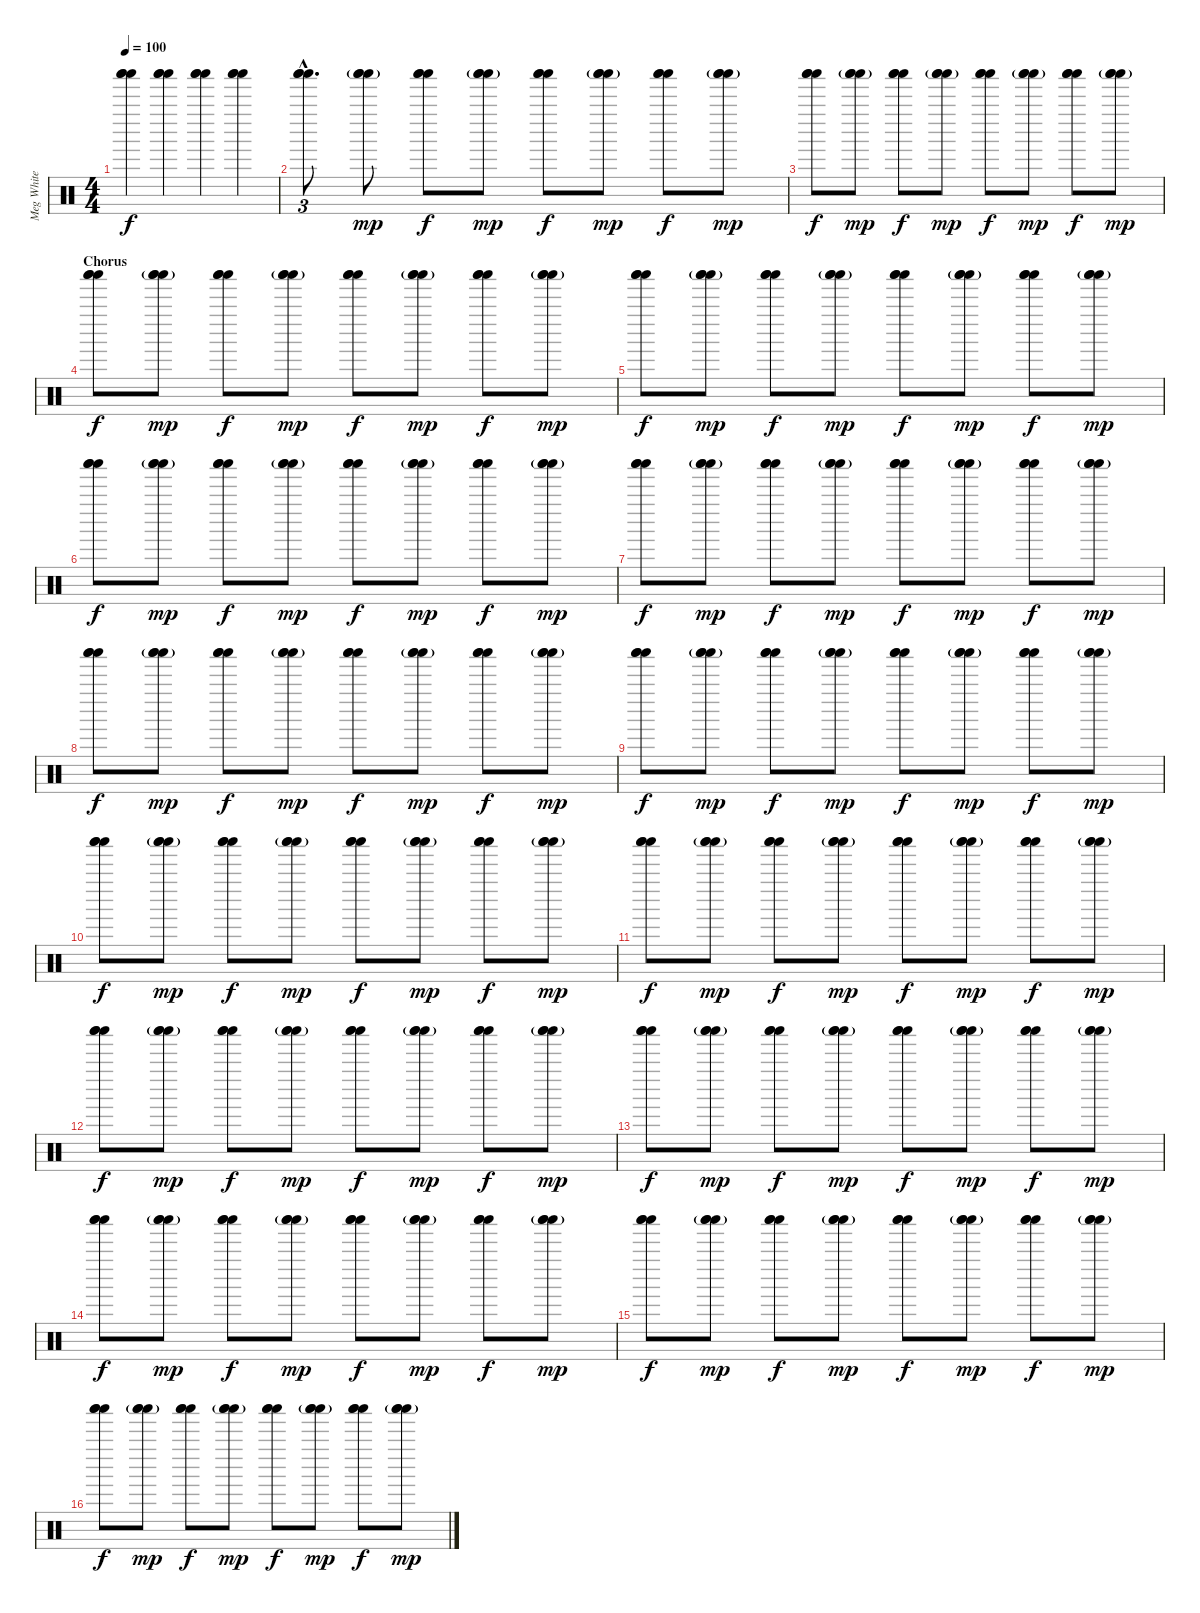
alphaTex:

\track ("Meg White" "Meg White") {instrument percussion}
\staff {score}
\articulation defaults
\ts (4 4)
\tempo 100
\clef neutral
\ks c
("Shaker (hit)" "Shaker (hit)" "Shaker (hit)").4{dy f} ("Shaker (hit)" "Shaker (hit)" "Shaker (hit)").4 ("Shaker (hit)" "Shaker (hit)" "Shaker (hit)").4 ("Shaker (hit)" "Shaker (hit)" "Shaker (hit)").4 |
("Shaker (hit)"{hac} "Shaker (hit)"{hac} "Shaker (hit)"{hac}).8{d tu (3 2)} ("Shaker (hit)"{g} "Shaker (hit)"{g} "Shaker (hit)"{g}).8{dy mp} ("Shaker (hit)" "Shaker (hit)" "Shaker (hit)").8{dy f} ("Shaker (hit)"{g} "Shaker (hit)"{g} "Shaker (hit)"{g}).8{dy mp} ("Shaker (hit)" "Shaker (hit)" "Shaker (hit)").8{dy f} ("Shaker (hit)"{g} "Shaker (hit)"{g} "Shaker (hit)"{g}).8{dy mp} ("Shaker (hit)" "Shaker (hit)" "Shaker (hit)").8{dy f} ("Shaker (hit)"{g} "Shaker (hit)"{g} "Shaker (hit)"{g}).8{dy mp} |
("Shaker (hit)" "Shaker (hit)" "Shaker (hit)").8{dy f} ("Shaker (hit)"{g} "Shaker (hit)"{g} "Shaker (hit)"{g}).8{dy mp} ("Shaker (hit)" "Shaker (hit)" "Shaker (hit)").8{dy f} ("Shaker (hit)"{g} "Shaker (hit)"{g} "Shaker (hit)"{g}).8{dy mp} ("Shaker (hit)" "Shaker (hit)" "Shaker (hit)").8{dy f} ("Shaker (hit)"{g} "Shaker (hit)"{g} "Shaker (hit)"{g}).8{dy mp} ("Shaker (hit)" "Shaker (hit)" "Shaker (hit)").8{dy f} ("Shaker (hit)"{g} "Shaker (hit)"{g} "Shaker (hit)"{g}).8{dy mp} |
\section ("" "Chorus")
("Shaker (hit)" "Shaker (hit)" "Shaker (hit)").8{dy f} ("Shaker (hit)"{g} "Shaker (hit)"{g} "Shaker (hit)"{g}).8{dy mp} ("Shaker (hit)" "Shaker (hit)" "Shaker (hit)").8{dy f} ("Shaker (hit)"{g} "Shaker (hit)"{g} "Shaker (hit)"{g}).8{dy mp} ("Shaker (hit)" "Shaker (hit)" "Shaker (hit)").8{dy f} ("Shaker (hit)"{g} "Shaker (hit)"{g} "Shaker (hit)"{g}).8{dy mp} ("Shaker (hit)" "Shaker (hit)" "Shaker (hit)").8{dy f} ("Shaker (hit)"{g} "Shaker (hit)"{g} "Shaker (hit)"{g}).8{dy mp} |
("Shaker (hit)" "Shaker (hit)" "Shaker (hit)").8{dy f} ("Shaker (hit)"{g} "Shaker (hit)"{g} "Shaker (hit)"{g}).8{dy mp} ("Shaker (hit)" "Shaker (hit)" "Shaker (hit)").8{dy f} ("Shaker (hit)"{g} "Shaker (hit)"{g} "Shaker (hit)"{g}).8{dy mp} ("Shaker (hit)" "Shaker (hit)" "Shaker (hit)").8{dy f} ("Shaker (hit)"{g} "Shaker (hit)"{g} "Shaker (hit)"{g}).8{dy mp} ("Shaker (hit)" "Shaker (hit)" "Shaker (hit)").8{dy f} ("Shaker (hit)"{g} "Shaker (hit)"{g} "Shaker (hit)"{g}).8{dy mp} |
("Shaker (hit)" "Shaker (hit)" "Shaker (hit)").8{dy f} ("Shaker (hit)"{g} "Shaker (hit)"{g} "Shaker (hit)"{g}).8{dy mp} ("Shaker (hit)" "Shaker (hit)" "Shaker (hit)").8{dy f} ("Shaker (hit)"{g} "Shaker (hit)"{g} "Shaker (hit)"{g}).8{dy mp} ("Shaker (hit)" "Shaker (hit)" "Shaker (hit)").8{dy f} ("Shaker (hit)"{g} "Shaker (hit)"{g} "Shaker (hit)"{g}).8{dy mp} ("Shaker (hit)" "Shaker (hit)" "Shaker (hit)").8{dy f} ("Shaker (hit)"{g} "Shaker (hit)"{g} "Shaker (hit)"{g}).8{dy mp} |
("Shaker (hit)" "Shaker (hit)" "Shaker (hit)").8{dy f} ("Shaker (hit)"{g} "Shaker (hit)"{g} "Shaker (hit)"{g}).8{dy mp} ("Shaker (hit)" "Shaker (hit)" "Shaker (hit)").8{dy f} ("Shaker (hit)"{g} "Shaker (hit)"{g} "Shaker (hit)"{g}).8{dy mp} ("Shaker (hit)" "Shaker (hit)" "Shaker (hit)").8{dy f} ("Shaker (hit)"{g} "Shaker (hit)"{g} "Shaker (hit)"{g}).8{dy mp} ("Shaker (hit)" "Shaker (hit)" "Shaker (hit)").8{dy f} ("Shaker (hit)"{g} "Shaker (hit)"{g} "Shaker (hit)"{g}).8{dy mp} |
("Shaker (hit)" "Shaker (hit)" "Shaker (hit)").8{dy f} ("Shaker (hit)"{g} "Shaker (hit)"{g} "Shaker (hit)"{g}).8{dy mp} ("Shaker (hit)" "Shaker (hit)" "Shaker (hit)").8{dy f} ("Shaker (hit)"{g} "Shaker (hit)"{g} "Shaker (hit)"{g}).8{dy mp} ("Shaker (hit)" "Shaker (hit)" "Shaker (hit)").8{dy f} ("Shaker (hit)"{g} "Shaker (hit)"{g} "Shaker (hit)"{g}).8{dy mp} ("Shaker (hit)" "Shaker (hit)" "Shaker (hit)").8{dy f} ("Shaker (hit)"{g} "Shaker (hit)"{g} "Shaker (hit)"{g}).8{dy mp} |
("Shaker (hit)" "Shaker (hit)" "Shaker (hit)").8{dy f} ("Shaker (hit)"{g} "Shaker (hit)"{g} "Shaker (hit)"{g}).8{dy mp} ("Shaker (hit)" "Shaker (hit)" "Shaker (hit)").8{dy f} ("Shaker (hit)"{g} "Shaker (hit)"{g} "Shaker (hit)"{g}).8{dy mp} ("Shaker (hit)" "Shaker (hit)" "Shaker (hit)").8{dy f} ("Shaker (hit)"{g} "Shaker (hit)"{g} "Shaker (hit)"{g}).8{dy mp} ("Shaker (hit)" "Shaker (hit)" "Shaker (hit)").8{dy f} ("Shaker (hit)"{g} "Shaker (hit)"{g} "Shaker (hit)"{g}).8{dy mp} |
("Shaker (hit)" "Shaker (hit)" "Shaker (hit)").8{dy f} ("Shaker (hit)"{g} "Shaker (hit)"{g} "Shaker (hit)"{g}).8{dy mp} ("Shaker (hit)" "Shaker (hit)" "Shaker (hit)").8{dy f} ("Shaker (hit)"{g} "Shaker (hit)"{g} "Shaker (hit)"{g}).8{dy mp} ("Shaker (hit)" "Shaker (hit)" "Shaker (hit)").8{dy f} ("Shaker (hit)"{g} "Shaker (hit)"{g} "Shaker (hit)"{g}).8{dy mp} ("Shaker (hit)" "Shaker (hit)" "Shaker (hit)").8{dy f} ("Shaker (hit)"{g} "Shaker (hit)"{g} "Shaker (hit)"{g}).8{dy mp} |
("Shaker (hit)" "Shaker (hit)" "Shaker (hit)").8{dy f} ("Shaker (hit)"{g} "Shaker (hit)"{g} "Shaker (hit)"{g}).8{dy mp} ("Shaker (hit)" "Shaker (hit)" "Shaker (hit)").8{dy f} ("Shaker (hit)"{g} "Shaker (hit)"{g} "Shaker (hit)"{g}).8{dy mp} ("Shaker (hit)" "Shaker (hit)" "Shaker (hit)").8{dy f} ("Shaker (hit)"{g} "Shaker (hit)"{g} "Shaker (hit)"{g}).8{dy mp} ("Shaker (hit)" "Shaker (hit)" "Shaker (hit)").8{dy f} ("Shaker (hit)"{g} "Shaker (hit)"{g} "Shaker (hit)"{g}).8{dy mp} |
("Shaker (hit)" "Shaker (hit)" "Shaker (hit)").8{dy f} ("Shaker (hit)"{g} "Shaker (hit)"{g} "Shaker (hit)"{g}).8{dy mp} ("Shaker (hit)" "Shaker (hit)" "Shaker (hit)").8{dy f} ("Shaker (hit)"{g} "Shaker (hit)"{g} "Shaker (hit)"{g}).8{dy mp} ("Shaker (hit)" "Shaker (hit)" "Shaker (hit)").8{dy f} ("Shaker (hit)"{g} "Shaker (hit)"{g} "Shaker (hit)"{g}).8{dy mp} ("Shaker (hit)" "Shaker (hit)" "Shaker (hit)").8{dy f} ("Shaker (hit)"{g} "Shaker (hit)"{g} "Shaker (hit)"{g}).8{dy mp} |
("Shaker (hit)" "Shaker (hit)" "Shaker (hit)").8{dy f} ("Shaker (hit)"{g} "Shaker (hit)"{g} "Shaker (hit)"{g}).8{dy mp} ("Shaker (hit)" "Shaker (hit)" "Shaker (hit)").8{dy f} ("Shaker (hit)"{g} "Shaker (hit)"{g} "Shaker (hit)"{g}).8{dy mp} ("Shaker (hit)" "Shaker (hit)" "Shaker (hit)").8{dy f} ("Shaker (hit)"{g} "Shaker (hit)"{g} "Shaker (hit)"{g}).8{dy mp} ("Shaker (hit)" "Shaker (hit)" "Shaker (hit)").8{dy f} ("Shaker (hit)"{g} "Shaker (hit)"{g} "Shaker (hit)"{g}).8{dy mp} |
("Shaker (hit)" "Shaker (hit)" "Shaker (hit)").8{dy f} ("Shaker (hit)"{g} "Shaker (hit)"{g} "Shaker (hit)"{g}).8{dy mp} ("Shaker (hit)" "Shaker (hit)" "Shaker (hit)").8{dy f} ("Shaker (hit)"{g} "Shaker (hit)"{g} "Shaker (hit)"{g}).8{dy mp} ("Shaker (hit)" "Shaker (hit)" "Shaker (hit)").8{dy f} ("Shaker (hit)"{g} "Shaker (hit)"{g} "Shaker (hit)"{g}).8{dy mp} ("Shaker (hit)" "Shaker (hit)" "Shaker (hit)").8{dy f} ("Shaker (hit)"{g} "Shaker (hit)"{g} "Shaker (hit)"{g}).8{dy mp} |
("Shaker (hit)" "Shaker (hit)" "Shaker (hit)").8{dy f} ("Shaker (hit)"{g} "Shaker (hit)"{g} "Shaker (hit)"{g}).8{dy mp} ("Shaker (hit)" "Shaker (hit)" "Shaker (hit)").8{dy f} ("Shaker (hit)"{g} "Shaker (hit)"{g} "Shaker (hit)"{g}).8{dy mp} ("Shaker (hit)" "Shaker (hit)" "Shaker (hit)").8{dy f} ("Shaker (hit)"{g} "Shaker (hit)"{g} "Shaker (hit)"{g}).8{dy mp} ("Shaker (hit)" "Shaker (hit)" "Shaker (hit)").8{dy f} ("Shaker (hit)"{g} "Shaker (hit)"{g} "Shaker (hit)"{g}).8{dy mp} |
("Shaker (hit)" "Shaker (hit)" "Shaker (hit)").8{dy f} ("Shaker (hit)"{g} "Shaker (hit)"{g} "Shaker (hit)"{g}).8{dy mp} ("Shaker (hit)" "Shaker (hit)" "Shaker (hit)").8{dy f} ("Shaker (hit)"{g} "Shaker (hit)"{g} "Shaker (hit)"{g}).8{dy mp} ("Shaker (hit)" "Shaker (hit)" "Shaker (hit)").8{dy f} ("Shaker (hit)"{g} "Shaker (hit)"{g} "Shaker (hit)"{g}).8{dy mp} ("Shaker (hit)" "Shaker (hit)" "Shaker (hit)").8{dy f} ("Shaker (hit)"{g} "Shaker (hit)"{g} "Shaker (hit)"{g}).8{dy mp}
